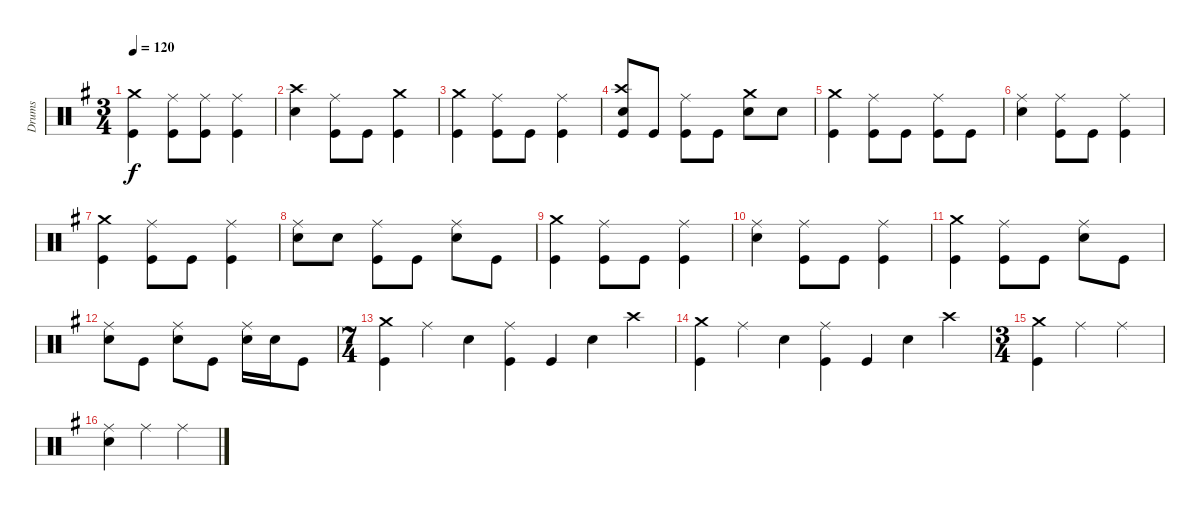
\track ("Drums" "Drums") {instrument percussion}
\staff {score}
\articulation defaults
\ts (3 4)
\tempo 120
\clef neutral
\ks g
("Crash medium (hit)" "Kick (hit)").4{dy f} ("Ride (middle)" "Kick (hit)").8 ("Ride (middle)" "Kick (hit)").8 ("Ride (middle)" "Kick (hit)").4 |
("Crash high (hit)" "Snare (hit) 2").4 ("Ride (middle)" "Kick (hit)").8 "Kick (hit)".8 ("Crash medium (hit)" "Kick (hit)").4 |
("Crash medium (hit)" "Kick (hit)").4 ("Ride (middle)" "Kick (hit)").8 "Kick (hit)".8 ("Ride (middle)" "Kick (hit)").4 |
("Crash high (hit)" "Snare (hit) 2" "Kick (hit)").8 "Kick (hit)".8 ("Ride (middle)" "Kick (hit)").8 "Kick (hit)".8 ("Crash medium (hit)" "Snare (hit) 2").8 "Snare (hit) 2".8 |
("Crash medium (hit)" "Kick (hit)").4 ("Ride (middle)" "Kick (hit)").8 "Kick (hit)".8 ("Ride (middle)" "Kick (hit)").8 "Kick (hit)".8 |
("Ride (middle)" "Snare (hit) 2").4 ("Ride (middle)" "Kick (hit)").8 "Kick (hit)".8 ("Ride (middle)" "Kick (hit)").4 |
("Crash medium (hit)" "Kick (hit)").4 ("Ride (middle)" "Kick (hit)").8 "Kick (hit)".8 ("Ride (middle)" "Kick (hit)").4 |
("Ride (middle)" "Snare (hit) 2").8 "Snare (hit) 2".8 ("Ride (middle)" "Kick (hit)").8 "Kick (hit)".8 ("Ride (middle)" "Snare (hit) 2").8 "Kick (hit)".8 |
("Crash medium (hit)" "Kick (hit)").4 ("Ride (middle)" "Kick (hit)").8 "Kick (hit)".8 ("Ride (middle)" "Kick (hit)").4 |
("Ride (middle)" "Snare (hit) 2").4 ("Ride (middle)" "Kick (hit)").8 "Kick (hit)".8 ("Ride (middle)" "Kick (hit)").4 |
("Crash medium (hit)" "Kick (hit)").4 ("Ride (middle)" "Kick (hit)").8 "Kick (hit)".8 ("Ride (middle)" "Snare (hit) 2").8 "Kick (hit)".8 |
("Ride (middle)" "Snare (hit) 2").8 "Kick (hit)".8 ("Ride (middle)" "Snare (hit) 2").8 "Kick (hit)".8 ("Ride (middle)" "Snare (hit) 2").16 "Snare (hit) 2".16 "Kick (hit)".8 |
\ts (7 4)
("Crash medium (hit)" "Kick (hit)").4 "Ride (middle)".4 "Snare (hit) 2".4 ("Ride (middle)" "Kick (hit)").4 "Kick (hit)".4 "Snare (hit) 2".4 "Crash high (hit)".4 |
("Crash medium (hit)" "Kick (hit)").4 "Ride (middle)".4 "Snare (hit) 2".4 ("Ride (middle)" "Kick (hit)").4 "Kick (hit)".4 "Snare (hit) 2".4 "Crash high (hit)".4 |
\ts (3 4)
("Crash medium (hit)" "Kick (hit)").4 "Ride (middle)".4 "Ride (middle)".4 |
("Ride (middle)" "Snare (hit) 2").4 "Ride (middle)".4 "Ride (middle)".4
